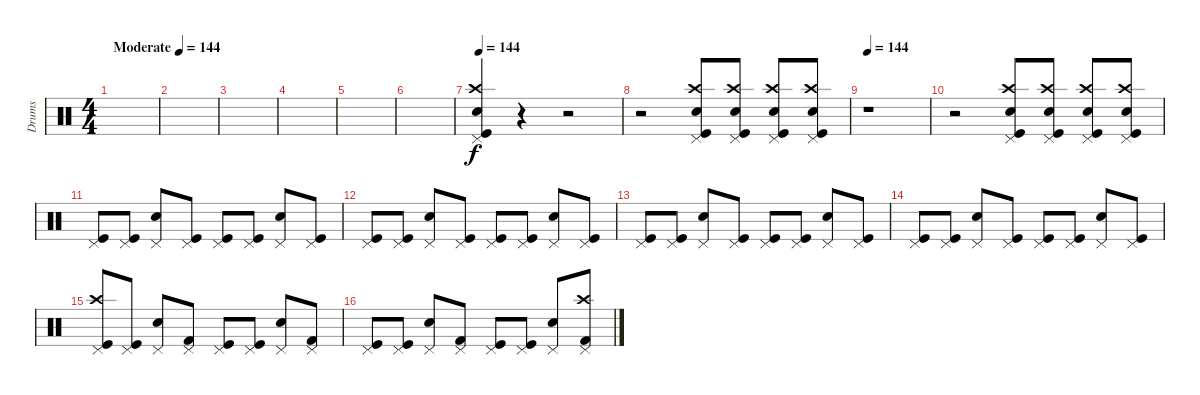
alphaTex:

\track ("Drums" "Drums") {instrument percussion}
\staff {score}
\articulation defaults
\ts (4 4)
\tempo (144 "Moderate")
\clef neutral
\ks c
|
|
|
|
|
|
\tempo 144
("Pedal Hi-Hat (hit)" "Crash high (hit)" "Kick (hit)" "Snare (hit) 2").4 r.4 r.2 |
r.2 ("Crash high (hit)" "Kick (hit)" "Snare (hit) 2" "Pedal Hi-Hat (hit)").8 ("Crash high (hit)" "Kick (hit)" "Snare (hit) 2" "Pedal Hi-Hat (hit)").8 ("Crash high (hit)" "Kick (hit)" "Snare (hit) 2" "Pedal Hi-Hat (hit)").8 ("Crash high (hit)" "Kick (hit)" "Snare (hit) 2" "Pedal Hi-Hat (hit)").8 |
\tempo 144
r.1 |
r.2 ("Crash high (hit)" "Kick (hit)" "Snare (hit) 2" "Pedal Hi-Hat (hit)").8 ("Crash high (hit)" "Kick (hit)" "Snare (hit) 2" "Pedal Hi-Hat (hit)").8 ("Crash high (hit)" "Kick (hit)" "Snare (hit) 2" "Pedal Hi-Hat (hit)").8 ("Crash high (hit)" "Kick (hit)" "Snare (hit) 2" "Pedal Hi-Hat (hit)").8 |
("Pedal Hi-Hat (hit)" "Kick (hit)").8 ("Pedal Hi-Hat (hit)" "Kick (hit)").8 ("Pedal Hi-Hat (hit)" "Snare (hit) 2").8 ("Pedal Hi-Hat (hit)" "Kick (hit)").8 ("Pedal Hi-Hat (hit)" "Kick (hit)").8 ("Pedal Hi-Hat (hit)" "Kick (hit)").8 ("Pedal Hi-Hat (hit)" "Snare (hit) 2").8 ("Pedal Hi-Hat (hit)" "Kick (hit)").8 |
("Pedal Hi-Hat (hit)" "Kick (hit)").8 ("Pedal Hi-Hat (hit)" "Kick (hit)").8 ("Pedal Hi-Hat (hit)" "Snare (hit) 2").8 ("Pedal Hi-Hat (hit)" "Kick (hit)").8 ("Pedal Hi-Hat (hit)" "Kick (hit)").8 ("Pedal Hi-Hat (hit)" "Kick (hit)").8 ("Pedal Hi-Hat (hit)" "Snare (hit) 2").8 ("Pedal Hi-Hat (hit)" "Kick (hit)").8 |
("Pedal Hi-Hat (hit)" "Kick (hit)").8 ("Pedal Hi-Hat (hit)" "Kick (hit)").8 ("Pedal Hi-Hat (hit)" "Snare (hit) 2").8 ("Pedal Hi-Hat (hit)" "Kick (hit)").8 ("Pedal Hi-Hat (hit)" "Kick (hit)").8 ("Pedal Hi-Hat (hit)" "Kick (hit)").8 ("Pedal Hi-Hat (hit)" "Snare (hit) 2").8 ("Pedal Hi-Hat (hit)" "Kick (hit)").8 |
("Pedal Hi-Hat (hit)" "Kick (hit)").8 ("Pedal Hi-Hat (hit)" "Kick (hit)").8 ("Pedal Hi-Hat (hit)" "Snare (hit) 2").8 ("Pedal Hi-Hat (hit)" "Kick (hit)").8 ("Pedal Hi-Hat (hit)" "Kick (hit)").8 ("Pedal Hi-Hat (hit)" "Kick (hit)").8 ("Pedal Hi-Hat (hit)" "Snare (hit) 2").8 ("Pedal Hi-Hat (hit)" "Kick (hit)").8 |
("Pedal Hi-Hat (hit)" "Kick (hit)" "Crash high (hit)").8 ("Pedal Hi-Hat (hit)" "Kick (hit)").8 ("Pedal Hi-Hat (hit)" "Snare (hit) 2").8 ("Pedal Hi-Hat (hit)" "Kick (hit) 2").8 ("Pedal Hi-Hat (hit)" "Kick (hit)").8 ("Pedal Hi-Hat (hit)" "Kick (hit)").8 ("Pedal Hi-Hat (hit)" "Snare (hit) 2").8 ("Pedal Hi-Hat (hit)" "Kick (hit) 2").8 |
("Pedal Hi-Hat (hit)" "Kick (hit)").8 ("Pedal Hi-Hat (hit)" "Kick (hit)").8 ("Pedal Hi-Hat (hit)" "Snare (hit) 2").8 ("Pedal Hi-Hat (hit)" "Kick (hit) 2").8 ("Pedal Hi-Hat (hit)" "Kick (hit)").8 ("Pedal Hi-Hat (hit)" "Kick (hit)").8 ("Pedal Hi-Hat (hit)" "Snare (hit) 2").8 ("Pedal Hi-Hat (hit)" "Kick (hit) 2" "Crash high (hit)").8
